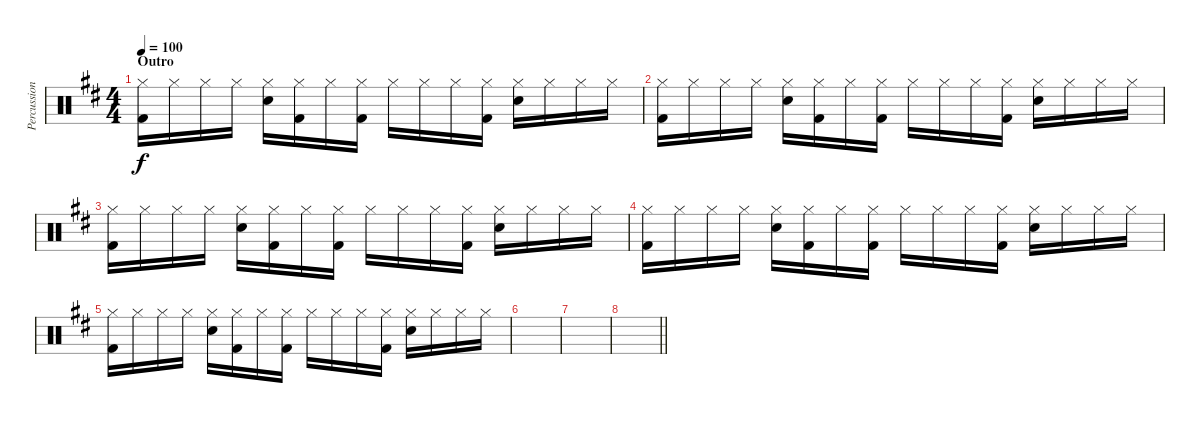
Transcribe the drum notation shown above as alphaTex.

\track ("Percussion" "Percussion") {instrument percussion}
\staff {score}
\articulation defaults
\ts (4 4)
\section ("" "Outro")
\tempo 100
\clef neutral
\ks d
("Hi-Hat (closed)" "Kick (hit) 2").16{dy f} "Hi-Hat (closed)".16 "Hi-Hat (closed)".16 "Hi-Hat (closed)".16 ("Hi-Hat (closed)" "Snare (hit) 2").16 ("Hi-Hat (closed)" "Kick (hit) 2").16 "Hi-Hat (closed)".16 ("Hi-Hat (closed)" "Kick (hit) 2").16 "Hi-Hat (closed)".16 "Hi-Hat (closed)".16 "Hi-Hat (closed)".16 ("Hi-Hat (closed)" "Kick (hit) 2").16 ("Hi-Hat (closed)" "Snare (hit) 2").16 "Hi-Hat (closed)".16 "Hi-Hat (closed)".16 "Hi-Hat (closed)".16 |
("Hi-Hat (closed)" "Kick (hit) 2").16 "Hi-Hat (closed)".16 "Hi-Hat (closed)".16 "Hi-Hat (closed)".16 ("Hi-Hat (closed)" "Snare (hit) 2").16 ("Hi-Hat (closed)" "Kick (hit) 2").16 "Hi-Hat (closed)".16 ("Hi-Hat (closed)" "Kick (hit) 2").16 "Hi-Hat (closed)".16 "Hi-Hat (closed)".16 "Hi-Hat (closed)".16 ("Hi-Hat (closed)" "Kick (hit) 2").16 ("Hi-Hat (closed)" "Snare (hit) 2").16 "Hi-Hat (closed)".16 "Hi-Hat (closed)".16 "Hi-Hat (closed)".16 |
("Hi-Hat (closed)" "Kick (hit) 2").16 "Hi-Hat (closed)".16 "Hi-Hat (closed)".16 "Hi-Hat (closed)".16 ("Hi-Hat (closed)" "Snare (hit) 2").16 ("Hi-Hat (closed)" "Kick (hit) 2").16 "Hi-Hat (closed)".16 ("Hi-Hat (closed)" "Kick (hit) 2").16 "Hi-Hat (closed)".16 "Hi-Hat (closed)".16 "Hi-Hat (closed)".16 ("Hi-Hat (closed)" "Kick (hit) 2").16 ("Hi-Hat (closed)" "Snare (hit) 2").16 "Hi-Hat (closed)".16 "Hi-Hat (closed)".16 "Hi-Hat (closed)".16 |
("Hi-Hat (closed)" "Kick (hit) 2").16 "Hi-Hat (closed)".16 "Hi-Hat (closed)".16 "Hi-Hat (closed)".16 ("Hi-Hat (closed)" "Snare (hit) 2").16 ("Hi-Hat (closed)" "Kick (hit) 2").16 "Hi-Hat (closed)".16 ("Hi-Hat (closed)" "Kick (hit) 2").16 "Hi-Hat (closed)".16 "Hi-Hat (closed)".16 "Hi-Hat (closed)".16 ("Hi-Hat (closed)" "Kick (hit) 2").16 ("Hi-Hat (closed)" "Snare (hit) 2").16 "Hi-Hat (closed)".16 "Hi-Hat (closed)".16 "Hi-Hat (closed)".16 |
("Hi-Hat (closed)" "Kick (hit) 2").16 "Hi-Hat (closed)".16 "Hi-Hat (closed)".16 "Hi-Hat (closed)".16 ("Hi-Hat (closed)" "Snare (hit) 2").16 ("Hi-Hat (closed)" "Kick (hit) 2").16 "Hi-Hat (closed)".16 ("Hi-Hat (closed)" "Kick (hit) 2").16 "Hi-Hat (closed)".16 "Hi-Hat (closed)".16 "Hi-Hat (closed)".16 ("Hi-Hat (closed)" "Kick (hit) 2").16 ("Hi-Hat (closed)" "Snare (hit) 2").16 "Hi-Hat (closed)".16 "Hi-Hat (closed)".16 "Hi-Hat (closed)".16 |
|
|
\barLineRight lightlight
